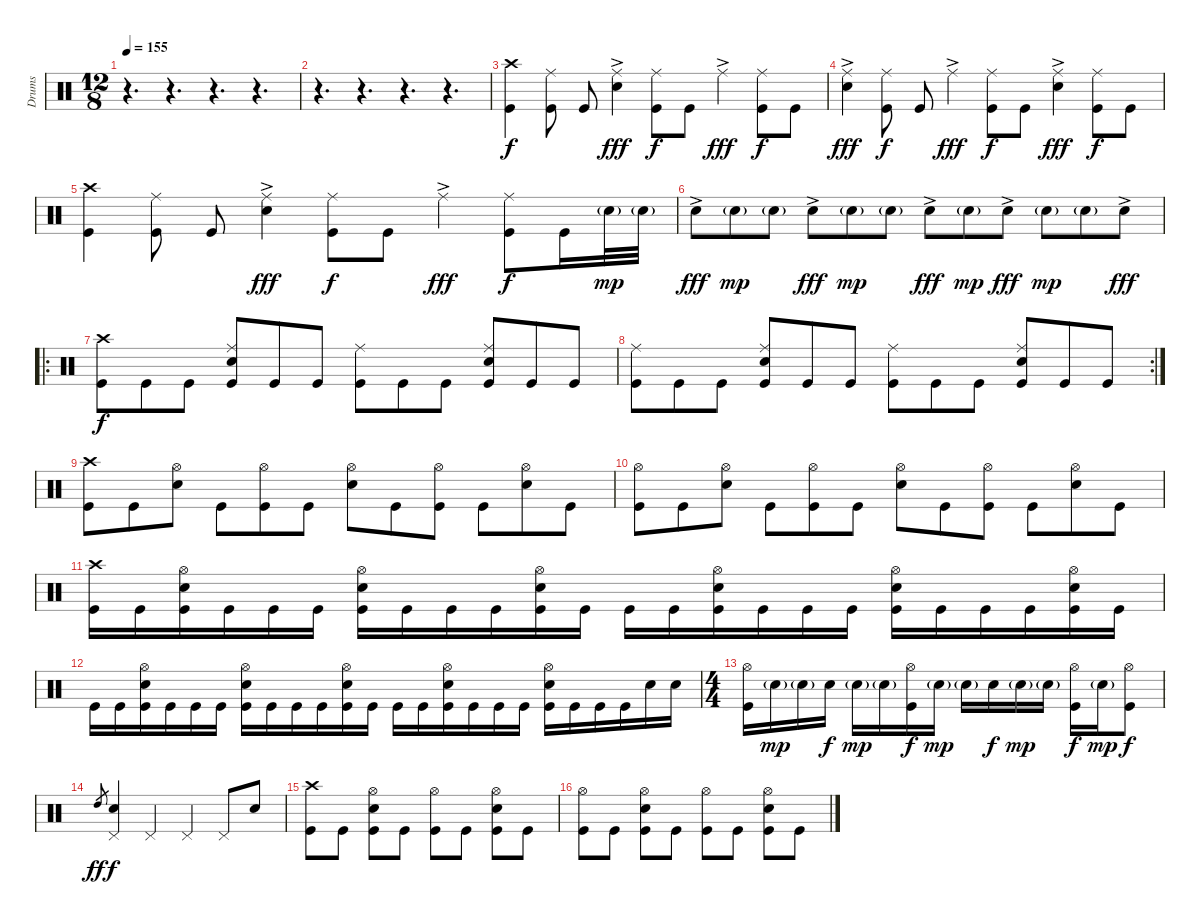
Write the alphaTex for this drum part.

\track ("Drums" "Drums") {instrument percussion}
\staff {score}
\articulation defaults
\ts (12 8)
\tempo 155
\clef neutral
\ks c
r.4{d dy f} r.4{d} r.4{d} r.4{d} |
r.4{d} r.4{d} r.4{d} r.4{d} |
("Crash high (hit)" "Kick (hit)").4 ("Ride (middle)" "Kick (hit)").8 "Kick (hit)".8 ("Ride (middle)"{ac} "Electric Snare (hit)").4{dy fff} ("Ride (middle)" "Kick (hit)").8{dy f} "Kick (hit)".8 "Ride (middle)"{ac}.4{dy fff} ("Ride (middle)" "Kick (hit)").8{dy f} "Kick (hit)".8 |
("Ride (middle)"{ac} "Electric Snare (hit)").4{dy fff} ("Ride (middle)" "Kick (hit)").8{dy f} "Kick (hit)".8 "Ride (middle)"{ac}.4{dy fff} ("Ride (middle)" "Kick (hit)").8{dy f} "Kick (hit)".8 ("Ride (middle)"{ac} "Electric Snare (hit)").4{dy fff} ("Ride (middle)" "Kick (hit)").8{dy f} "Kick (hit)".8 |
("Crash high (hit)" "Kick (hit)").4 ("Ride (middle)" "Kick (hit)").8 "Kick (hit)".8 ("Ride (middle)"{ac} "Electric Snare (hit)").4{dy fff} ("Ride (middle)" "Kick (hit)").8{dy f} "Kick (hit)".8 "Ride (middle)"{ac}.4{dy fff} ("Ride (middle)" "Kick (hit)").8{dy f} "Kick (hit)".16 "Electric Snare (hit)"{g}.32{dy mp} "Electric Snare (hit)"{g}.32 |
"Electric Snare (hit)"{ac}.8{dy fff} "Electric Snare (hit)"{g}.8{dy mp} "Electric Snare (hit)"{g}.8 "Electric Snare (hit)"{ac}.8{dy fff} "Electric Snare (hit)"{g}.8{dy mp} "Electric Snare (hit)"{g}.8 "Electric Snare (hit)"{ac}.8{dy fff} "Electric Snare (hit)"{g}.8{dy mp} "Electric Snare (hit)"{ac}.8{dy fff} "Electric Snare (hit)"{g}.8{dy mp} "Electric Snare (hit)"{g}.8 "Electric Snare (hit)"{ac}.8{dy fff} |
\ro
("Crash high (hit)" "Kick (hit)").8{dy f} "Kick (hit)".8 "Kick (hit)".8 ("Ride (middle)" "Electric Snare (hit)" "Kick (hit)").8 "Kick (hit)".8 "Kick (hit)".8 ("Ride (middle)" "Kick (hit)").8 "Kick (hit)".8 "Kick (hit)".8 ("Ride (middle)" "Electric Snare (hit)" "Kick (hit)").8 "Kick (hit)".8 "Kick (hit)".8 |
\rc 2
("Ride (middle)" "Kick (hit)").8 "Kick (hit)".8 "Kick (hit)".8 ("Ride (middle)" "Electric Snare (hit)" "Kick (hit)").8 "Kick (hit)".8 "Kick (hit)".8 ("Ride (middle)" "Kick (hit)").8 "Kick (hit)".8 "Kick (hit)".8 ("Ride (middle)" "Electric Snare (hit)" "Kick (hit)").8 "Kick (hit)".8 "Kick (hit)".8 |
("Crash high (hit)" "Kick (hit)").8 "Kick (hit)".8 ("Hi-Hat (open)" "Electric Snare (hit)").8 "Kick (hit)".8 ("Hi-Hat (open)" "Kick (hit)").8 "Kick (hit)".8 ("Hi-Hat (open)" "Electric Snare (hit)").8 "Kick (hit)".8 ("Hi-Hat (open)" "Kick (hit)").8 "Kick (hit)".8 ("Hi-Hat (open)" "Electric Snare (hit)").8 "Kick (hit)".8 |
("Hi-Hat (open)" "Kick (hit)").8 "Kick (hit)".8 ("Hi-Hat (open)" "Electric Snare (hit)").8 "Kick (hit)".8 ("Hi-Hat (open)" "Kick (hit)").8 "Kick (hit)".8 ("Hi-Hat (open)" "Electric Snare (hit)").8 "Kick (hit)".8 ("Hi-Hat (open)" "Kick (hit)").8 "Kick (hit)".8 ("Hi-Hat (open)" "Electric Snare (hit)").8 "Kick (hit)".8 |
("Crash high (hit)" "Kick (hit)").16 "Kick (hit)".16 ("Hi-Hat (open)" "Electric Snare (hit)" "Kick (hit)").16 "Kick (hit)".16 "Kick (hit)".16 "Kick (hit)".16 ("Hi-Hat (open)" "Electric Snare (hit)" "Kick (hit)").16 "Kick (hit)".16 "Kick (hit)".16 "Kick (hit)".16 ("Hi-Hat (open)" "Electric Snare (hit)" "Kick (hit)").16 "Kick (hit)".16 "Kick (hit)".16 "Kick (hit)".16 ("Hi-Hat (open)" "Electric Snare (hit)" "Kick (hit)").16 "Kick (hit)".16 "Kick (hit)".16 "Kick (hit)".16 ("Hi-Hat (open)" "Electric Snare (hit)" "Kick (hit)").16 "Kick (hit)".16 "Kick (hit)".16 "Kick (hit)".16 ("Hi-Hat (open)" "Electric Snare (hit)" "Kick (hit)").16 "Kick (hit)".16 |
"Kick (hit)".16 "Kick (hit)".16 ("Hi-Hat (open)" "Electric Snare (hit)" "Kick (hit)").16 "Kick (hit)".16 "Kick (hit)".16 "Kick (hit)".16 ("Hi-Hat (open)" "Electric Snare (hit)" "Kick (hit)").16 "Kick (hit)".16 "Kick (hit)".16 "Kick (hit)".16 ("Hi-Hat (open)" "Electric Snare (hit)" "Kick (hit)").16 "Kick (hit)".16 "Kick (hit)".16 "Kick (hit)".16 ("Hi-Hat (open)" "Electric Snare (hit)" "Kick (hit)").16 "Kick (hit)".16 "Kick (hit)".16 "Kick (hit)".16 ("Hi-Hat (open)" "Electric Snare (hit)" "Kick (hit)").16 "Kick (hit)".16 "Kick (hit)".16 "Kick (hit)".16 "Electric Snare (hit)".16 "Electric Snare (hit)".16 |
\ts (4 4)
("Hi-Hat (open)" "Kick (hit)").16 "Electric Snare (hit)"{g}.16{dy mp} "Electric Snare (hit)"{g}.16 "Electric Snare (hit)".16{dy f} "Electric Snare (hit)"{g}.16{dy mp} "Electric Snare (hit)"{g}.16 ("Hi-Hat (open)" "Kick (hit)").16{dy f} "Electric Snare (hit)"{g}.16{dy mp} "Electric Snare (hit)"{g}.16 "Electric Snare (hit)".16{dy f} "Electric Snare (hit)"{g}.16{dy mp} "Electric Snare (hit)"{g}.16 ("Hi-Hat (open)" "Kick (hit)").16{dy f} "Electric Snare (hit)"{g}.16{dy mp} ("Hi-Hat (open)" "Kick (hit)").8{dy f} |
"High Tom (hit)".8{gr dy ff} ("Pedal Hi-Hat (hit)" "Electric Snare (hit)").4{dy f} "Pedal Hi-Hat (hit)".4 "Pedal Hi-Hat (hit)".4 "Pedal Hi-Hat (hit)".8 "Electric Snare (hit)".8 |
("Crash high (hit)" "Kick (hit)").8 "Kick (hit)".8 ("Hi-Hat (open)" "Electric Snare (hit)" "Kick (hit)").8 "Kick (hit)".8 ("Hi-Hat (open)" "Kick (hit)").8 "Kick (hit)".8 ("Hi-Hat (open)" "Electric Snare (hit)" "Kick (hit)").8 "Kick (hit)".8 |
("Hi-Hat (open)" "Kick (hit)").8 "Kick (hit)".8 ("Hi-Hat (open)" "Electric Snare (hit)" "Kick (hit)").8 "Kick (hit)".8 ("Hi-Hat (open)" "Kick (hit)").8 "Kick (hit)".8 ("Hi-Hat (open)" "Electric Snare (hit)" "Kick (hit)").8 "Kick (hit)".8
